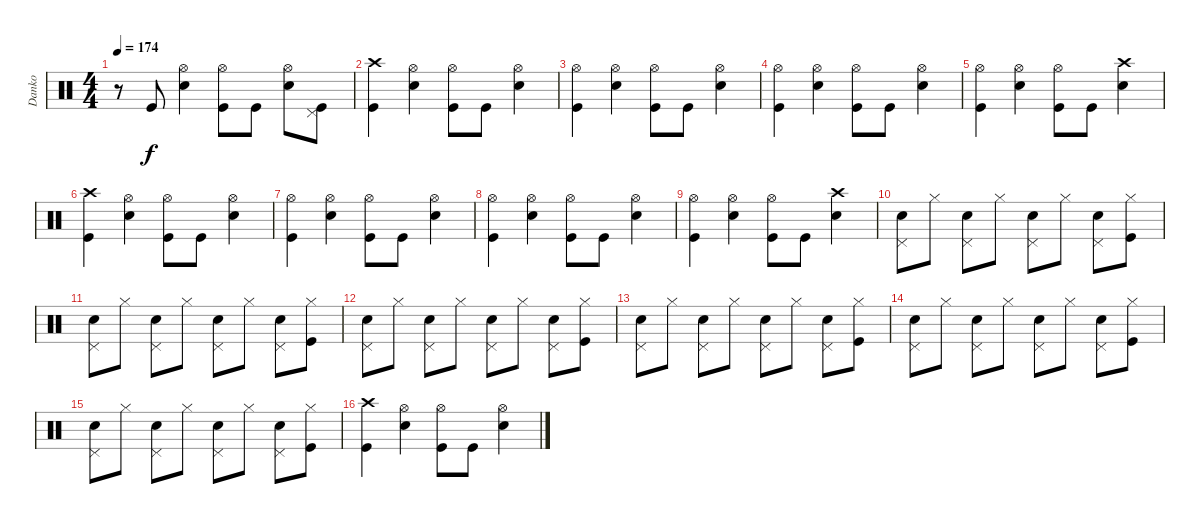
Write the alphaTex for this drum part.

\track ("Danko" "Danko") {instrument percussion}
\staff {score}
\articulation defaults
\ts (4 4)
\tempo 174
\clef neutral
\ks c
r.8{dy f} "Kick (hit)".8 ("Hi-Hat (open)" "Snare (hit) 2").4 ("Hi-Hat (open)" "Kick (hit)").8 "Kick (hit)".8 ("Hi-Hat (open)" "Snare (hit) 2").8 ("Kick (hit)" "Pedal Hi-Hat (hit)").8 |
("Crash high (hit)" "Kick (hit)").4 ("Hi-Hat (open)" "Snare (hit) 2").4 ("Hi-Hat (open)" "Kick (hit)").8 "Kick (hit)".8 ("Hi-Hat (open)" "Snare (hit) 2").4 |
("Hi-Hat (open)" "Kick (hit)").4 ("Hi-Hat (open)" "Snare (hit) 2").4 ("Hi-Hat (open)" "Kick (hit)").8 "Kick (hit)".8 ("Hi-Hat (open)" "Snare (hit) 2").4 |
("Hi-Hat (open)" "Kick (hit)").4 ("Hi-Hat (open)" "Snare (hit) 2").4 ("Hi-Hat (open)" "Kick (hit)").8 "Kick (hit)".8 ("Hi-Hat (open)" "Snare (hit) 2").4 |
("Hi-Hat (open)" "Kick (hit)").4 ("Hi-Hat (open)" "Snare (hit) 2").4 ("Hi-Hat (open)" "Kick (hit)").8 "Kick (hit)".8 ("Crash high (hit)" "Snare (hit) 2").4 |
("Crash high (hit)" "Kick (hit)").4 ("Hi-Hat (open)" "Snare (hit) 2").4 ("Hi-Hat (open)" "Kick (hit)").8 "Kick (hit)".8 ("Hi-Hat (open)" "Snare (hit) 2").4 |
("Hi-Hat (open)" "Kick (hit)").4 ("Hi-Hat (open)" "Snare (hit) 2").4 ("Hi-Hat (open)" "Kick (hit)").8 "Kick (hit)".8 ("Hi-Hat (open)" "Snare (hit) 2").4 |
("Hi-Hat (open)" "Kick (hit)").4 ("Hi-Hat (open)" "Snare (hit) 2").4 ("Hi-Hat (open)" "Kick (hit)").8 "Kick (hit)".8 ("Hi-Hat (open)" "Snare (hit) 2").4 |
("Hi-Hat (open)" "Kick (hit)").4 ("Hi-Hat (open)" "Snare (hit) 2").4 ("Hi-Hat (open)" "Kick (hit)").8 "Kick (hit)".8 ("Crash high (hit)" "Snare (hit) 2").4 |
("Pedal Hi-Hat (hit)" "Snare (hit) 2").8 "Hi-Hat (closed)".8 ("Pedal Hi-Hat (hit)" "Snare (hit) 2").8 "Hi-Hat (closed)".8 ("Pedal Hi-Hat (hit)" "Snare (hit) 2").8 "Hi-Hat (closed)".8 ("Pedal Hi-Hat (hit)" "Snare (hit) 2").8 ("Hi-Hat (closed)" "Kick (hit)").8 |
("Pedal Hi-Hat (hit)" "Snare (hit) 2").8 "Hi-Hat (closed)".8 ("Pedal Hi-Hat (hit)" "Snare (hit) 2").8 "Hi-Hat (closed)".8 ("Pedal Hi-Hat (hit)" "Snare (hit) 2").8 "Hi-Hat (closed)".8 ("Pedal Hi-Hat (hit)" "Snare (hit) 2").8 ("Hi-Hat (closed)" "Kick (hit)").8 |
("Pedal Hi-Hat (hit)" "Snare (hit) 2").8 "Hi-Hat (closed)".8 ("Pedal Hi-Hat (hit)" "Snare (hit) 2").8 "Hi-Hat (closed)".8 ("Pedal Hi-Hat (hit)" "Snare (hit) 2").8 "Hi-Hat (closed)".8 ("Pedal Hi-Hat (hit)" "Snare (hit) 2").8 ("Hi-Hat (closed)" "Kick (hit)").8 |
("Pedal Hi-Hat (hit)" "Snare (hit) 2").8 "Hi-Hat (closed)".8 ("Pedal Hi-Hat (hit)" "Snare (hit) 2").8 "Hi-Hat (closed)".8 ("Pedal Hi-Hat (hit)" "Snare (hit) 2").8 "Hi-Hat (closed)".8 ("Pedal Hi-Hat (hit)" "Snare (hit) 2").8 ("Hi-Hat (closed)" "Kick (hit)").8 |
("Pedal Hi-Hat (hit)" "Snare (hit) 2").8 "Hi-Hat (closed)".8 ("Pedal Hi-Hat (hit)" "Snare (hit) 2").8 "Hi-Hat (closed)".8 ("Pedal Hi-Hat (hit)" "Snare (hit) 2").8 "Hi-Hat (closed)".8 ("Pedal Hi-Hat (hit)" "Snare (hit) 2").8 ("Hi-Hat (closed)" "Kick (hit)").8 |
("Pedal Hi-Hat (hit)" "Snare (hit) 2").8 "Hi-Hat (closed)".8 ("Pedal Hi-Hat (hit)" "Snare (hit) 2").8 "Hi-Hat (closed)".8 ("Pedal Hi-Hat (hit)" "Snare (hit) 2").8 "Hi-Hat (closed)".8 ("Pedal Hi-Hat (hit)" "Snare (hit) 2").8 ("Hi-Hat (closed)" "Kick (hit)").8 |
("Crash high (hit)" "Kick (hit)").4 ("Hi-Hat (open)" "Snare (hit) 2").4 ("Hi-Hat (open)" "Kick (hit)").8 "Kick (hit)".8 ("Hi-Hat (open)" "Snare (hit) 2").4
